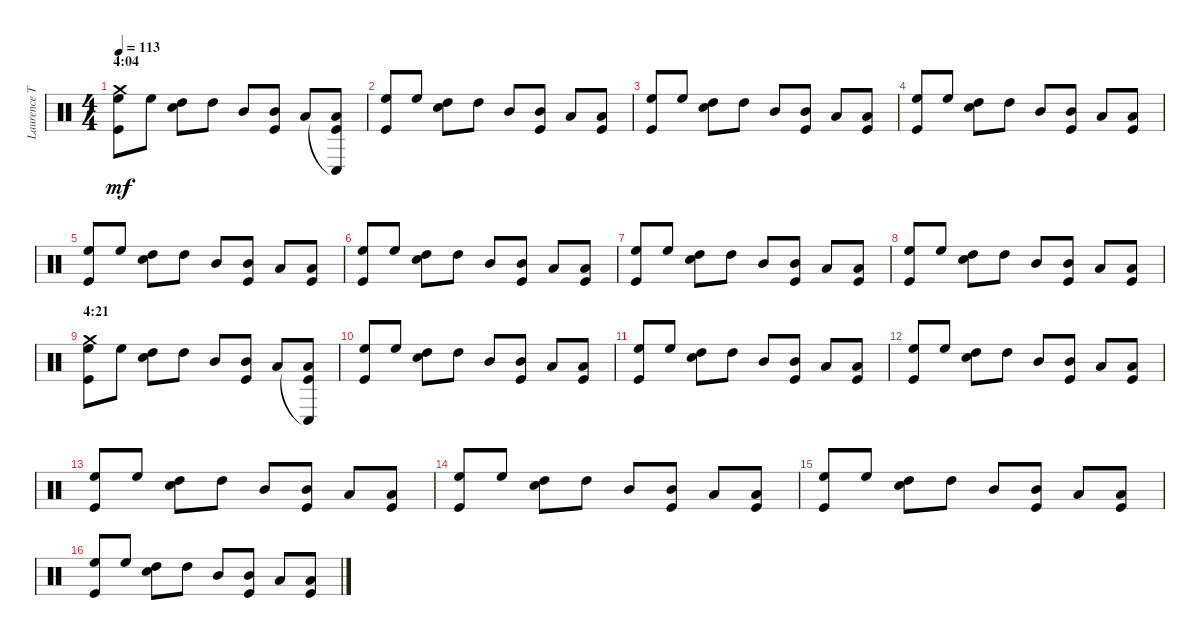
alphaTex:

\track ("Laurence Tolhurst (drums)" "Laurence T") {instrument percussion}
\staff {score}
\articulation defaults
\ts (4 4)
\section ("" "4:04")
\tempo 113
\clef neutral
\ks c
("Crash medium (hit)" "High Floor Tom (hit)" "Kick (hit)").8{dy mf} "High Floor Tom (hit)".8 ("High Tom (hit)" "Snare (hit) 2").8 "High Tom (hit)".8 "Mid Tom (hit)".8 ("Mid Tom (hit)" "Kick (hit)").8 "Low Tom (hit)".8 ("Conga low (hit)"{t} "Low Tom (hit)" "Kick (hit)").8 |
("High Floor Tom (hit)" "Kick (hit)").8 "High Floor Tom (hit)".8 ("High Tom (hit)" "Snare (hit) 2").8 "High Tom (hit)".8 "Mid Tom (hit)".8 ("Mid Tom (hit)" "Kick (hit)").8 "Low Tom (hit)".8 ("Low Tom (hit)" "Kick (hit)").8 |
("High Floor Tom (hit)" "Kick (hit)").8 "High Floor Tom (hit)".8 ("High Tom (hit)" "Snare (hit) 2").8 "High Tom (hit)".8 "Mid Tom (hit)".8 ("Mid Tom (hit)" "Kick (hit)").8 "Low Tom (hit)".8 ("Low Tom (hit)" "Kick (hit)").8 |
("High Floor Tom (hit)" "Kick (hit)").8 "High Floor Tom (hit)".8 ("High Tom (hit)" "Snare (hit) 2").8 "High Tom (hit)".8 "Mid Tom (hit)".8 ("Mid Tom (hit)" "Kick (hit)").8 "Low Tom (hit)".8 ("Low Tom (hit)" "Kick (hit)").8 |
("High Floor Tom (hit)" "Kick (hit)").8 "High Floor Tom (hit)".8 ("High Tom (hit)" "Snare (hit) 2").8 "High Tom (hit)".8 "Mid Tom (hit)".8 ("Mid Tom (hit)" "Kick (hit)").8 "Low Tom (hit)".8 ("Low Tom (hit)" "Kick (hit)").8 |
("High Floor Tom (hit)" "Kick (hit)").8 "High Floor Tom (hit)".8 ("High Tom (hit)" "Snare (hit) 2").8 "High Tom (hit)".8 "Mid Tom (hit)".8 ("Mid Tom (hit)" "Kick (hit)").8 "Low Tom (hit)".8 ("Low Tom (hit)" "Kick (hit)").8 |
("High Floor Tom (hit)" "Kick (hit)").8 "High Floor Tom (hit)".8 ("High Tom (hit)" "Snare (hit) 2").8 "High Tom (hit)".8 "Mid Tom (hit)".8 ("Mid Tom (hit)" "Kick (hit)").8 "Low Tom (hit)".8 ("Low Tom (hit)" "Kick (hit)").8 |
("High Floor Tom (hit)" "Kick (hit)").8 "High Floor Tom (hit)".8 ("High Tom (hit)" "Snare (hit) 2").8 "High Tom (hit)".8 "Mid Tom (hit)".8 ("Mid Tom (hit)" "Kick (hit)").8 "Low Tom (hit)".8 ("Low Tom (hit)" "Kick (hit)").8 |
\section ("" "4:21")
("Crash medium (hit)" "High Floor Tom (hit)" "Kick (hit)").8 "High Floor Tom (hit)".8 ("High Tom (hit)" "Snare (hit) 2").8 "High Tom (hit)".8 "Mid Tom (hit)".8 ("Mid Tom (hit)" "Kick (hit)").8 "Low Tom (hit)".8 ("Conga low (hit)"{t} "Low Tom (hit)" "Kick (hit)").8 |
("High Floor Tom (hit)" "Kick (hit)").8 "High Floor Tom (hit)".8 ("High Tom (hit)" "Snare (hit) 2").8 "High Tom (hit)".8 "Mid Tom (hit)".8 ("Mid Tom (hit)" "Kick (hit)").8 "Low Tom (hit)".8 ("Low Tom (hit)" "Kick (hit)").8 |
("High Floor Tom (hit)" "Kick (hit)").8 "High Floor Tom (hit)".8 ("High Tom (hit)" "Snare (hit) 2").8 "High Tom (hit)".8 "Mid Tom (hit)".8 ("Mid Tom (hit)" "Kick (hit)").8 "Low Tom (hit)".8 ("Low Tom (hit)" "Kick (hit)").8 |
("High Floor Tom (hit)" "Kick (hit)").8 "High Floor Tom (hit)".8 ("High Tom (hit)" "Snare (hit) 2").8 "High Tom (hit)".8 "Mid Tom (hit)".8 ("Mid Tom (hit)" "Kick (hit)").8 "Low Tom (hit)".8 ("Low Tom (hit)" "Kick (hit)").8 |
("High Floor Tom (hit)" "Kick (hit)").8 "High Floor Tom (hit)".8 ("High Tom (hit)" "Snare (hit) 2").8 "High Tom (hit)".8 "Mid Tom (hit)".8 ("Mid Tom (hit)" "Kick (hit)").8 "Low Tom (hit)".8 ("Low Tom (hit)" "Kick (hit)").8 |
("High Floor Tom (hit)" "Kick (hit)").8 "High Floor Tom (hit)".8 ("High Tom (hit)" "Snare (hit) 2").8 "High Tom (hit)".8 "Mid Tom (hit)".8 ("Mid Tom (hit)" "Kick (hit)").8 "Low Tom (hit)".8 ("Low Tom (hit)" "Kick (hit)").8 |
("High Floor Tom (hit)" "Kick (hit)").8 "High Floor Tom (hit)".8 ("High Tom (hit)" "Snare (hit) 2").8 "High Tom (hit)".8 "Mid Tom (hit)".8 ("Mid Tom (hit)" "Kick (hit)").8 "Low Tom (hit)".8 ("Low Tom (hit)" "Kick (hit)").8 |
("High Floor Tom (hit)" "Kick (hit)").8 "High Floor Tom (hit)".8 ("High Tom (hit)" "Snare (hit) 2").8 "High Tom (hit)".8 "Mid Tom (hit)".8 ("Mid Tom (hit)" "Kick (hit)").8 "Low Tom (hit)".8 ("Low Tom (hit)" "Kick (hit)").8
